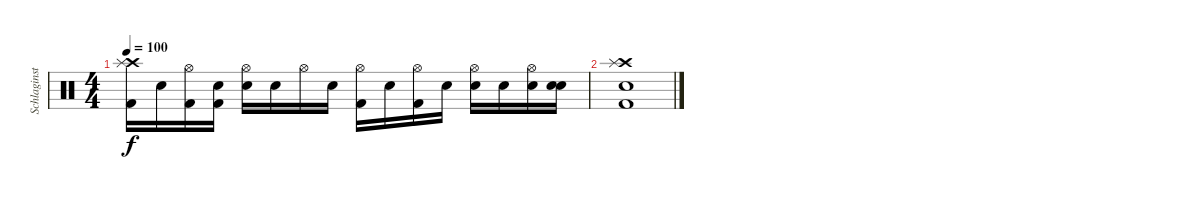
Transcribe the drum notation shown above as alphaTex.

\track ("Schlaginstrumente - Auswahl" "Schlaginst") {instrument percussion}
\staff {score}
\articulation defaults
\ts (4 4)
\tempo 100
\clef neutral
\ks c
("Crash high (hit)" "Splash (hit)" "Kick (hit) 2").16{dy f} "Snare (hit)"{x}.16 ("Hi-Hat (open)" "Kick (hit) 2").16 ("Snare (hit)"{x} "Kick (hit) 2").16 ("Hi-Hat (open)" "Electric Snare (hit)").16 "Snare (hit)"{x}.16 "Hi-Hat (open)".16 "Snare (hit)"{x}.16 ("Hi-Hat (open)" "Kick (hit) 2").16 "Snare (hit)"{x}.16 ("Hi-Hat (open)" "Kick (hit) 2").16 "Snare (hit)"{x}.16 ("Hi-Hat (open)" "Electric Snare (hit)").16 "Snare (hit)"{x}.16 ("Hi-Hat (open)" "Electric Snare (hit)").16 ("Snare (hit)"{x} "Electric Snare (hit)").16 |
("Crash high (hit)" "Splash (hit)" "Electric Snare (hit)" "Kick (hit) 2").1
